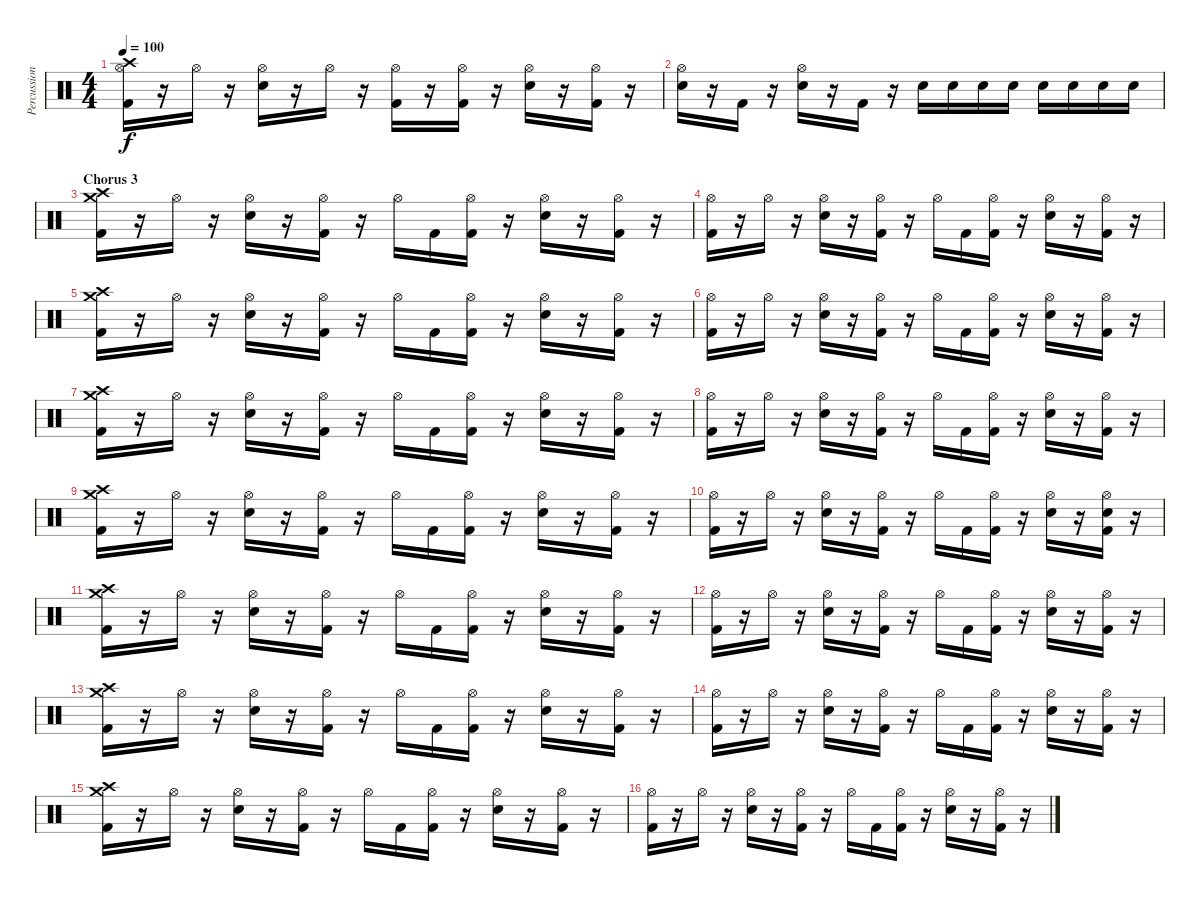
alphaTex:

\track ("Percussion" "Percussion") {instrument percussion}
\staff {score}
\articulation defaults
\ts (4 4)
\tempo 100
\clef neutral
\ks c
("Kick (hit) 2" "Hi-Hat (open)" "Crash high (hit)").16{dy f} r.16 "Hi-Hat (open)".16 r.16 ("Snare (hit) 2" "Hi-Hat (open)").16 r.16 "Hi-Hat (open)".16 r.16 ("Kick (hit) 2" "Hi-Hat (open)").16 r.16 ("Kick (hit) 2" "Hi-Hat (open)").16 r.16 ("Snare (hit) 2" "Hi-Hat (open)").16 r.16 ("Kick (hit) 2" "Hi-Hat (open)").16 r.16 |
("Snare (hit) 2" "Hi-Hat (open)").16 r.16 "Kick (hit) 2".16 r.16 ("Snare (hit) 2" "Hi-Hat (open)").16 r.16 "Kick (hit) 2".16 r.16 "Snare (hit) 2".16 "Snare (hit) 2".16 "Snare (hit) 2".16 "Snare (hit) 2".16 "Snare (hit) 2".16 "Snare (hit) 2".16 "Snare (hit) 2".16 "Snare (hit) 2".16 |
\section ("" "Chorus 3")
("Kick (hit) 2" "Crash medium (hit)" "Crash high (hit)").16 r.16 "Hi-Hat (open)".16 r.16 ("Snare (hit) 2" "Hi-Hat (open)").16 r.16 ("Kick (hit) 2" "Hi-Hat (open)").16 r.16 "Hi-Hat (open)".16 "Kick (hit) 2".16 ("Kick (hit) 2" "Hi-Hat (open)").16 r.16 ("Snare (hit) 2" "Hi-Hat (open)").16 r.16 ("Kick (hit) 2" "Hi-Hat (open)").16 r.16 |
("Kick (hit) 2" "Hi-Hat (open)").16 r.16 "Hi-Hat (open)".16 r.16 ("Snare (hit) 2" "Hi-Hat (open)").16 r.16 ("Kick (hit) 2" "Hi-Hat (open)").16 r.16 "Hi-Hat (open)".16 "Kick (hit) 2".16 ("Kick (hit) 2" "Hi-Hat (open)").16 r.16 ("Snare (hit) 2" "Hi-Hat (open)").16 r.16 ("Kick (hit) 2" "Hi-Hat (open)").16 r.16 |
("Kick (hit) 2" "Crash medium (hit)" "Crash high (hit)").16 r.16 "Hi-Hat (open)".16 r.16 ("Snare (hit) 2" "Hi-Hat (open)").16 r.16 ("Kick (hit) 2" "Hi-Hat (open)").16 r.16 "Hi-Hat (open)".16 "Kick (hit) 2".16 ("Kick (hit) 2" "Hi-Hat (open)").16 r.16 ("Snare (hit) 2" "Hi-Hat (open)").16 r.16 ("Kick (hit) 2" "Hi-Hat (open)").16 r.16 |
("Kick (hit) 2" "Hi-Hat (open)").16 r.16 "Hi-Hat (open)".16 r.16 ("Snare (hit) 2" "Hi-Hat (open)").16 r.16 ("Kick (hit) 2" "Hi-Hat (open)").16 r.16 "Hi-Hat (open)".16 "Kick (hit) 2".16 ("Kick (hit) 2" "Hi-Hat (open)").16 r.16 ("Snare (hit) 2" "Hi-Hat (open)").16 r.16 ("Kick (hit) 2" "Hi-Hat (open)").16 r.16 |
("Kick (hit) 2" "Crash medium (hit)" "Crash high (hit)").16 r.16 "Hi-Hat (open)".16 r.16 ("Snare (hit) 2" "Hi-Hat (open)").16 r.16 ("Kick (hit) 2" "Hi-Hat (open)").16 r.16 "Hi-Hat (open)".16 "Kick (hit) 2".16 ("Kick (hit) 2" "Hi-Hat (open)").16 r.16 ("Snare (hit) 2" "Hi-Hat (open)").16 r.16 ("Kick (hit) 2" "Hi-Hat (open)").16 r.16 |
("Kick (hit) 2" "Hi-Hat (open)").16 r.16 "Hi-Hat (open)".16 r.16 ("Snare (hit) 2" "Hi-Hat (open)").16 r.16 ("Kick (hit) 2" "Hi-Hat (open)").16 r.16 "Hi-Hat (open)".16 "Kick (hit) 2".16 ("Kick (hit) 2" "Hi-Hat (open)").16 r.16 ("Snare (hit) 2" "Hi-Hat (open)").16 r.16 ("Kick (hit) 2" "Hi-Hat (open)").16 r.16 |
("Kick (hit) 2" "Crash medium (hit)" "Crash high (hit)").16 r.16 "Hi-Hat (open)".16 r.16 ("Snare (hit) 2" "Hi-Hat (open)").16 r.16 ("Kick (hit) 2" "Hi-Hat (open)").16 r.16 "Hi-Hat (open)".16 "Kick (hit) 2".16 ("Kick (hit) 2" "Hi-Hat (open)").16 r.16 ("Snare (hit) 2" "Hi-Hat (open)").16 r.16 ("Kick (hit) 2" "Hi-Hat (open)").16 r.16 |
("Kick (hit) 2" "Hi-Hat (open)").16 r.16 "Hi-Hat (open)".16 r.16 ("Snare (hit) 2" "Hi-Hat (open)").16 r.16 ("Kick (hit) 2" "Hi-Hat (open)").16 r.16 "Hi-Hat (open)".16 "Kick (hit) 2".16 ("Kick (hit) 2" "Hi-Hat (open)").16 r.16 ("Snare (hit) 2" "Hi-Hat (open)").16 r.16 ("Kick (hit) 2" "Snare (hit) 2" "Hi-Hat (open)").16 r.16 |
("Kick (hit) 2" "Crash medium (hit)" "Crash high (hit)").16 r.16 "Hi-Hat (open)".16 r.16 ("Snare (hit) 2" "Hi-Hat (open)").16 r.16 ("Kick (hit) 2" "Hi-Hat (open)").16 r.16 "Hi-Hat (open)".16 "Kick (hit) 2".16 ("Kick (hit) 2" "Hi-Hat (open)").16 r.16 ("Snare (hit) 2" "Hi-Hat (open)").16 r.16 ("Kick (hit) 2" "Hi-Hat (open)").16 r.16 |
("Kick (hit) 2" "Hi-Hat (open)").16 r.16 "Hi-Hat (open)".16 r.16 ("Snare (hit) 2" "Hi-Hat (open)").16 r.16 ("Kick (hit) 2" "Hi-Hat (open)").16 r.16 "Hi-Hat (open)".16 "Kick (hit) 2".16 ("Kick (hit) 2" "Hi-Hat (open)").16 r.16 ("Snare (hit) 2" "Hi-Hat (open)").16 r.16 ("Kick (hit) 2" "Hi-Hat (open)").16 r.16 |
("Kick (hit) 2" "Crash medium (hit)" "Crash high (hit)").16 r.16 "Hi-Hat (open)".16 r.16 ("Snare (hit) 2" "Hi-Hat (open)").16 r.16 ("Kick (hit) 2" "Hi-Hat (open)").16 r.16 "Hi-Hat (open)".16 "Kick (hit) 2".16 ("Kick (hit) 2" "Hi-Hat (open)").16 r.16 ("Snare (hit) 2" "Hi-Hat (open)").16 r.16 ("Kick (hit) 2" "Hi-Hat (open)").16 r.16 |
("Kick (hit) 2" "Hi-Hat (open)").16 r.16 "Hi-Hat (open)".16 r.16 ("Snare (hit) 2" "Hi-Hat (open)").16 r.16 ("Kick (hit) 2" "Hi-Hat (open)").16 r.16 "Hi-Hat (open)".16 "Kick (hit) 2".16 ("Kick (hit) 2" "Hi-Hat (open)").16 r.16 ("Snare (hit) 2" "Hi-Hat (open)").16 r.16 ("Kick (hit) 2" "Hi-Hat (open)").16 r.16 |
("Kick (hit) 2" "Crash medium (hit)" "Crash high (hit)").16 r.16 "Hi-Hat (open)".16 r.16 ("Snare (hit) 2" "Hi-Hat (open)").16 r.16 ("Kick (hit) 2" "Hi-Hat (open)").16 r.16 "Hi-Hat (open)".16 "Kick (hit) 2".16 ("Kick (hit) 2" "Hi-Hat (open)").16 r.16 ("Snare (hit) 2" "Hi-Hat (open)").16 r.16 ("Kick (hit) 2" "Hi-Hat (open)").16 r.16 |
("Kick (hit) 2" "Hi-Hat (open)").16 r.16 "Hi-Hat (open)".16 r.16 ("Snare (hit) 2" "Hi-Hat (open)").16 r.16 ("Kick (hit) 2" "Hi-Hat (open)").16 r.16 "Hi-Hat (open)".16 "Kick (hit) 2".16 ("Kick (hit) 2" "Hi-Hat (open)").16 r.16 ("Snare (hit) 2" "Hi-Hat (open)").16 r.16 ("Kick (hit) 2" "Hi-Hat (open)").16 r.16
